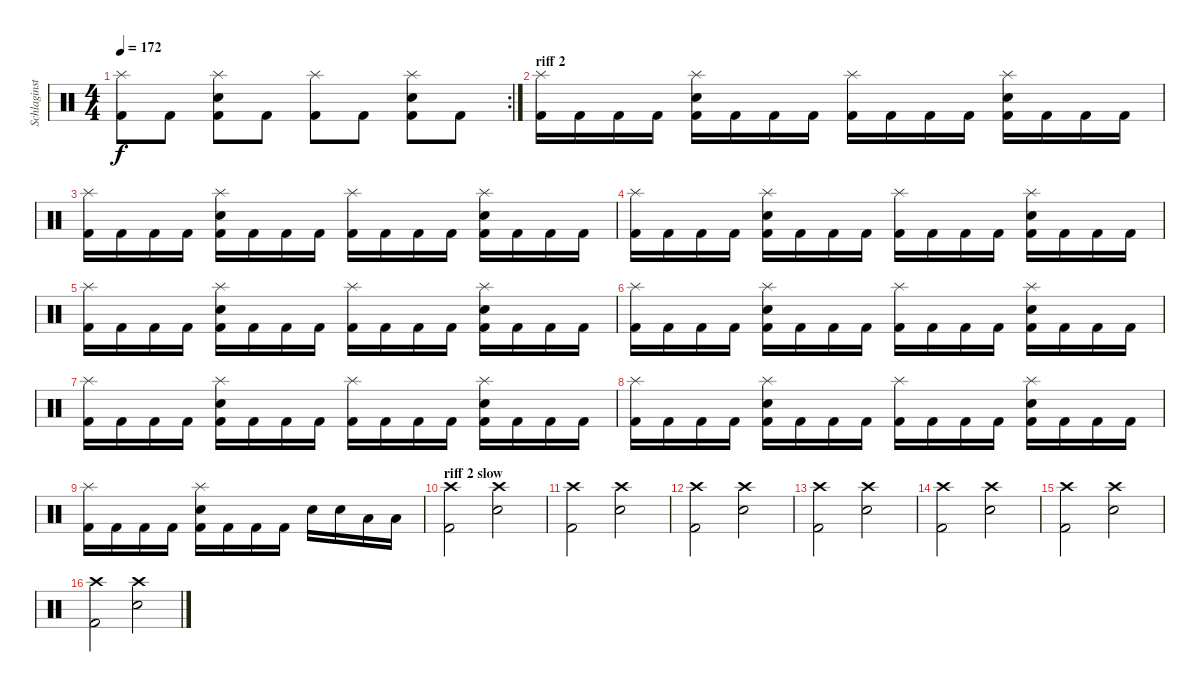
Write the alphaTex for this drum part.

\track ("Schlaginstrumente - Auswahl" "Schlaginst") {instrument percussion}
\staff {score}
\articulation defaults
\rc 2
\ts (4 4)
\tempo 172
\clef neutral
\ks c
("Splash (hit)" "Kick (hit) 2").8{dy f} "Kick (hit) 2".8 ("Electric Snare (hit)" "Splash (hit)" "Kick (hit) 2").8 "Kick (hit) 2".8 ("Splash (hit)" "Kick (hit) 2").8 "Kick (hit) 2".8 ("Electric Snare (hit)" "Splash (hit)" "Kick (hit) 2").8 "Kick (hit) 2".8 |
\section ("" "riff 2")
("Splash (hit)" "Kick (hit) 2").16 "Kick (hit) 2".16 "Kick (hit) 2".16 "Kick (hit) 2".16 ("Electric Snare (hit)" "Splash (hit)" "Kick (hit) 2").16 "Kick (hit) 2".16 "Kick (hit) 2".16 "Kick (hit) 2".16 ("Splash (hit)" "Kick (hit) 2").16 "Kick (hit) 2".16 "Kick (hit) 2".16 "Kick (hit) 2".16 ("Electric Snare (hit)" "Splash (hit)" "Kick (hit) 2").16 "Kick (hit) 2".16 "Kick (hit) 2".16 "Kick (hit) 2".16 |
("Splash (hit)" "Kick (hit) 2").16 "Kick (hit) 2".16 "Kick (hit) 2".16 "Kick (hit) 2".16 ("Electric Snare (hit)" "Splash (hit)" "Kick (hit) 2").16 "Kick (hit) 2".16 "Kick (hit) 2".16 "Kick (hit) 2".16 ("Splash (hit)" "Kick (hit) 2").16 "Kick (hit) 2".16 "Kick (hit) 2".16 "Kick (hit) 2".16 ("Electric Snare (hit)" "Splash (hit)" "Kick (hit) 2").16 "Kick (hit) 2".16 "Kick (hit) 2".16 "Kick (hit) 2".16 |
("Splash (hit)" "Kick (hit) 2").16 "Kick (hit) 2".16 "Kick (hit) 2".16 "Kick (hit) 2".16 ("Electric Snare (hit)" "Splash (hit)" "Kick (hit) 2").16 "Kick (hit) 2".16 "Kick (hit) 2".16 "Kick (hit) 2".16 ("Splash (hit)" "Kick (hit) 2").16 "Kick (hit) 2".16 "Kick (hit) 2".16 "Kick (hit) 2".16 ("Electric Snare (hit)" "Splash (hit)" "Kick (hit) 2").16 "Kick (hit) 2".16 "Kick (hit) 2".16 "Kick (hit) 2".16 |
("Splash (hit)" "Kick (hit) 2").16 "Kick (hit) 2".16 "Kick (hit) 2".16 "Kick (hit) 2".16 ("Electric Snare (hit)" "Splash (hit)" "Kick (hit) 2").16 "Kick (hit) 2".16 "Kick (hit) 2".16 "Kick (hit) 2".16 ("Splash (hit)" "Kick (hit) 2").16 "Kick (hit) 2".16 "Kick (hit) 2".16 "Kick (hit) 2".16 ("Electric Snare (hit)" "Splash (hit)" "Kick (hit) 2").16 "Kick (hit) 2".16 "Kick (hit) 2".16 "Kick (hit) 2".16 |
("Splash (hit)" "Kick (hit) 2").16 "Kick (hit) 2".16 "Kick (hit) 2".16 "Kick (hit) 2".16 ("Electric Snare (hit)" "Splash (hit)" "Kick (hit) 2").16 "Kick (hit) 2".16 "Kick (hit) 2".16 "Kick (hit) 2".16 ("Splash (hit)" "Kick (hit) 2").16 "Kick (hit) 2".16 "Kick (hit) 2".16 "Kick (hit) 2".16 ("Electric Snare (hit)" "Splash (hit)" "Kick (hit) 2").16 "Kick (hit) 2".16 "Kick (hit) 2".16 "Kick (hit) 2".16 |
("Splash (hit)" "Kick (hit) 2").16 "Kick (hit) 2".16 "Kick (hit) 2".16 "Kick (hit) 2".16 ("Electric Snare (hit)" "Splash (hit)" "Kick (hit) 2").16 "Kick (hit) 2".16 "Kick (hit) 2".16 "Kick (hit) 2".16 ("Splash (hit)" "Kick (hit) 2").16 "Kick (hit) 2".16 "Kick (hit) 2".16 "Kick (hit) 2".16 ("Electric Snare (hit)" "Splash (hit)" "Kick (hit) 2").16 "Kick (hit) 2".16 "Kick (hit) 2".16 "Kick (hit) 2".16 |
("Splash (hit)" "Kick (hit) 2").16 "Kick (hit) 2".16 "Kick (hit) 2".16 "Kick (hit) 2".16 ("Electric Snare (hit)" "Splash (hit)" "Kick (hit) 2").16 "Kick (hit) 2".16 "Kick (hit) 2".16 "Kick (hit) 2".16 ("Splash (hit)" "Kick (hit) 2").16 "Kick (hit) 2".16 "Kick (hit) 2".16 "Kick (hit) 2".16 ("Electric Snare (hit)" "Splash (hit)" "Kick (hit) 2").16 "Kick (hit) 2".16 "Kick (hit) 2".16 "Kick (hit) 2".16 |
("Splash (hit)" "Kick (hit) 2").16 "Kick (hit) 2".16 "Kick (hit) 2".16 "Kick (hit) 2".16 ("Electric Snare (hit)" "Splash (hit)" "Kick (hit) 2").16 "Kick (hit) 2".16 "Kick (hit) 2".16 "Kick (hit) 2".16 "Electric Snare (hit)".16 "Electric Snare (hit)".16 "Low Tom (hit)".16 "Low Tom (hit)".16 |
\section ("" "riff 2 slow")
("Crash high (hit)" "Kick (hit) 2").2 ("Electric Snare (hit)" "Crash high (hit)").2 |
("Crash high (hit)" "Kick (hit) 2").2 ("Electric Snare (hit)" "Crash high (hit)").2 |
("Crash high (hit)" "Kick (hit) 2").2 ("Electric Snare (hit)" "Crash high (hit)").2 |
("Crash high (hit)" "Kick (hit) 2").2 ("Electric Snare (hit)" "Crash high (hit)").2 |
("Crash high (hit)" "Kick (hit) 2").2 ("Electric Snare (hit)" "Crash high (hit)").2 |
("Crash high (hit)" "Kick (hit) 2").2 ("Electric Snare (hit)" "Crash high (hit)").2 |
("Crash high (hit)" "Kick (hit) 2").2 ("Electric Snare (hit)" "Crash high (hit)").2
